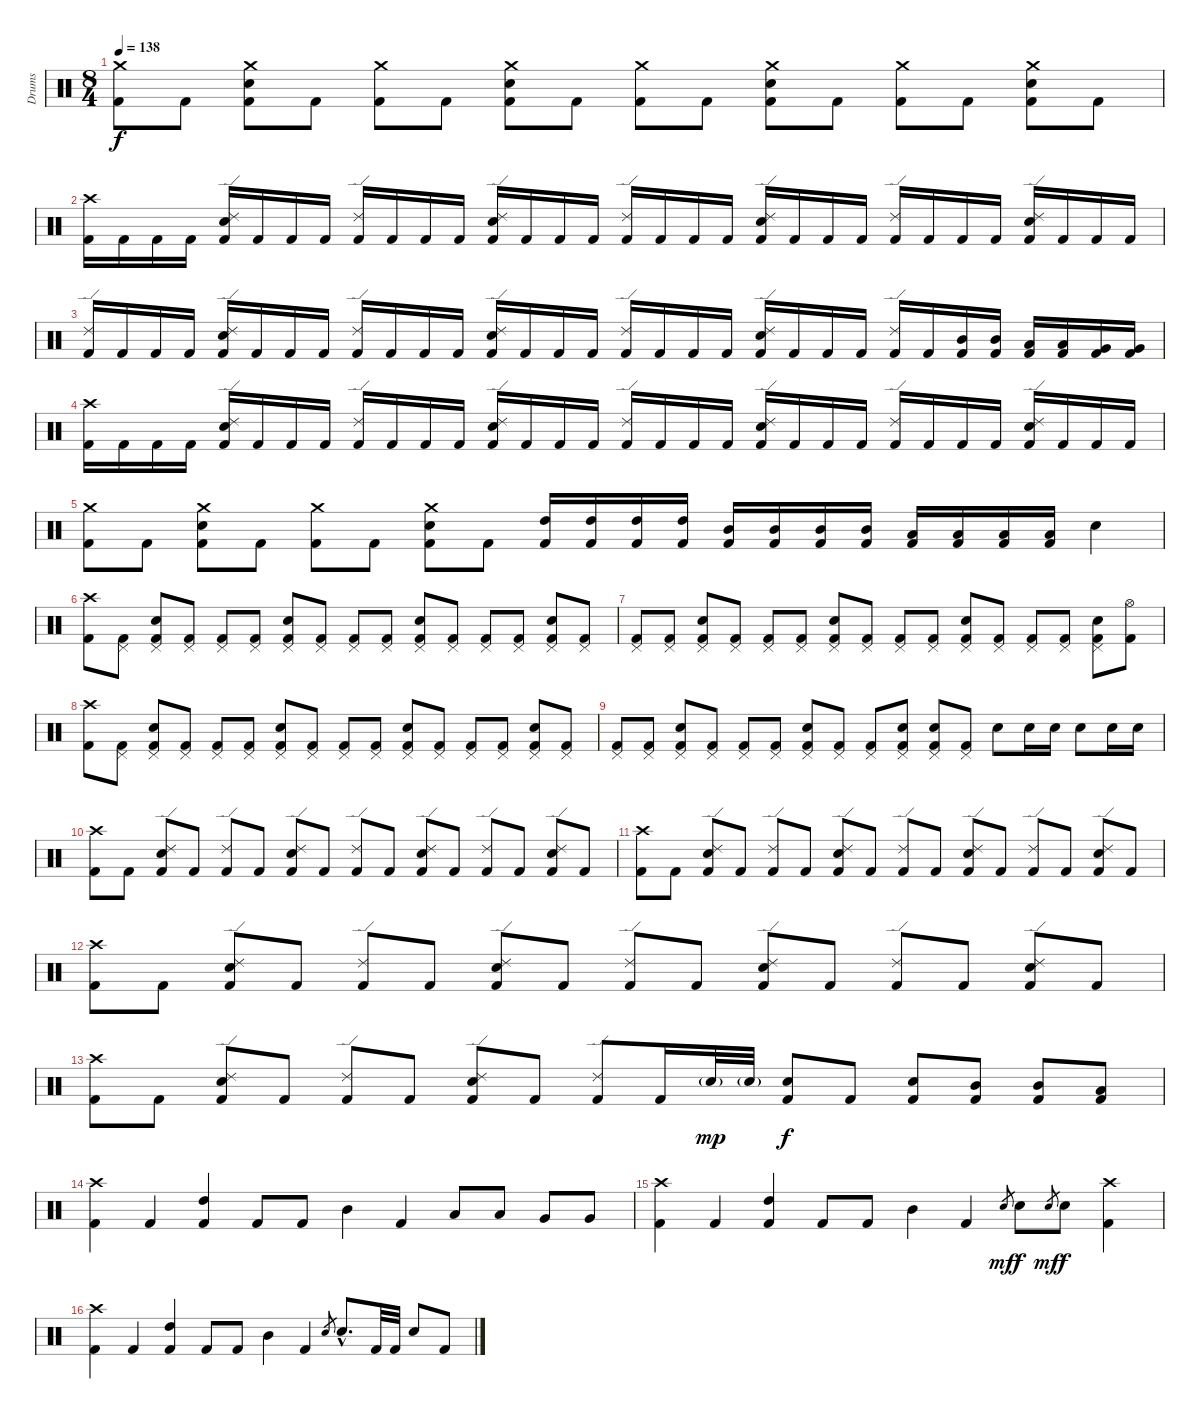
\track ("Drums" "Drums") {instrument percussion}
\staff {score}
\articulation defaults
\ts (8 4)
\tempo 138
\clef neutral
\ks c
("Crash medium (hit)" "Kick (hit) 2").8{dy f} "Kick (hit) 2".8 ("Crash medium (hit)" "Snare (hit) 2" "Kick (hit) 2").8 "Kick (hit) 2".8 ("Crash medium (hit)" "Kick (hit) 2").8 "Kick (hit) 2".8 ("Crash medium (hit)" "Snare (hit) 2" "Kick (hit) 2").8 "Kick (hit) 2".8 ("Crash medium (hit)" "Kick (hit) 2").8 "Kick (hit) 2".8 ("Crash medium (hit)" "Snare (hit) 2" "Kick (hit) 2").8 "Kick (hit) 2".8 ("Crash medium (hit)" "Kick (hit) 2").8 "Kick (hit) 2".8 ("Crash medium (hit)" "Snare (hit) 2" "Kick (hit) 2").8 "Kick (hit) 2".8 |
("Crash high (hit)" "Kick (hit) 2").16 "Kick (hit) 2".16 "Kick (hit) 2".16 "Kick (hit) 2".16 ("Ride (edge) 2" "Snare (hit) 2" "Kick (hit) 2").16 "Kick (hit) 2".16 "Kick (hit) 2".16 "Kick (hit) 2".16 ("Ride (edge) 2" "Kick (hit) 2").16 "Kick (hit) 2".16 "Kick (hit) 2".16 "Kick (hit) 2".16 ("Ride (edge) 2" "Snare (hit) 2" "Kick (hit) 2").16 "Kick (hit) 2".16 "Kick (hit) 2".16 "Kick (hit) 2".16 ("Ride (edge) 2" "Kick (hit) 2").16 "Kick (hit) 2".16 "Kick (hit) 2".16 "Kick (hit) 2".16 ("Ride (edge) 2" "Snare (hit) 2" "Kick (hit) 2").16 "Kick (hit) 2".16 "Kick (hit) 2".16 "Kick (hit) 2".16 ("Ride (edge) 2" "Kick (hit) 2").16 "Kick (hit) 2".16 "Kick (hit) 2".16 "Kick (hit) 2".16 ("Ride (edge) 2" "Snare (hit) 2" "Kick (hit) 2").16 "Kick (hit) 2".16 "Kick (hit) 2".16 "Kick (hit) 2".16 |
("Ride (edge) 2" "Kick (hit) 2").16 "Kick (hit) 2".16 "Kick (hit) 2".16 "Kick (hit) 2".16 ("Ride (edge) 2" "Snare (hit) 2" "Kick (hit) 2").16 "Kick (hit) 2".16 "Kick (hit) 2".16 "Kick (hit) 2".16 ("Ride (edge) 2" "Kick (hit) 2").16 "Kick (hit) 2".16 "Kick (hit) 2".16 "Kick (hit) 2".16 ("Ride (edge) 2" "Snare (hit) 2" "Kick (hit) 2").16 "Kick (hit) 2".16 "Kick (hit) 2".16 "Kick (hit) 2".16 ("Ride (edge) 2" "Kick (hit) 2").16 "Kick (hit) 2".16 "Kick (hit) 2".16 "Kick (hit) 2".16 ("Ride (edge) 2" "Snare (hit) 2" "Kick (hit) 2").16 "Kick (hit) 2".16 "Kick (hit) 2".16 "Kick (hit) 2".16 ("Ride (edge) 2" "Kick (hit) 2").16 "Kick (hit) 2".16 ("Mid Tom (hit)" "Kick (hit) 2").16 ("Mid Tom (hit)" "Kick (hit) 2").16 ("Low Tom (hit)" "Kick (hit) 2").16 ("Low Tom (hit)" "Kick (hit) 2").16 ("Very Low Tom (hit)" "Kick (hit) 2").16 ("Very Low Tom (hit)" "Kick (hit) 2").16 |
("Crash high (hit)" "Kick (hit) 2").16 "Kick (hit) 2".16 "Kick (hit) 2".16 "Kick (hit) 2".16 ("Ride (edge) 2" "Snare (hit) 2" "Kick (hit) 2").16 "Kick (hit) 2".16 "Kick (hit) 2".16 "Kick (hit) 2".16 ("Ride (edge) 2" "Kick (hit) 2").16 "Kick (hit) 2".16 "Kick (hit) 2".16 "Kick (hit) 2".16 ("Ride (edge) 2" "Snare (hit) 2" "Kick (hit) 2").16 "Kick (hit) 2".16 "Kick (hit) 2".16 "Kick (hit) 2".16 ("Ride (edge) 2" "Kick (hit) 2").16 "Kick (hit) 2".16 "Kick (hit) 2".16 "Kick (hit) 2".16 ("Ride (edge) 2" "Snare (hit) 2" "Kick (hit) 2").16 "Kick (hit) 2".16 "Kick (hit) 2".16 "Kick (hit) 2".16 ("Ride (edge) 2" "Kick (hit) 2").16 "Kick (hit) 2".16 "Kick (hit) 2".16 "Kick (hit) 2".16 ("Ride (edge) 2" "Snare (hit) 2" "Kick (hit) 2").16 "Kick (hit) 2".16 "Kick (hit) 2".16 "Kick (hit) 2".16 |
("Crash medium (hit)" "Kick (hit) 2").8 "Kick (hit) 2".8 ("Crash medium (hit)" "Snare (hit) 2" "Kick (hit) 2").8 "Kick (hit) 2".8 ("Crash medium (hit)" "Kick (hit) 2").8 "Kick (hit) 2".8 ("Crash medium (hit)" "Snare (hit) 2" "Kick (hit) 2").8 "Kick (hit) 2".8 ("High Tom (hit)" "Kick (hit) 2").16 ("High Tom (hit)" "Kick (hit) 2").16 ("High Tom (hit)" "Kick (hit) 2").16 ("High Tom (hit)" "Kick (hit) 2").16 ("Mid Tom (hit)" "Kick (hit) 2").16 ("Mid Tom (hit)" "Kick (hit) 2").16 ("Mid Tom (hit)" "Kick (hit) 2").16 ("Mid Tom (hit)" "Kick (hit) 2").16 ("Low Tom (hit)" "Kick (hit) 2").16 ("Low Tom (hit)" "Kick (hit) 2").16 ("Low Tom (hit)" "Kick (hit) 2").16 ("Low Tom (hit)" "Kick (hit) 2").16 "Snare (hit) 2".4 |
("Crash high (hit)" "Kick (hit) 2").8 ("Pedal Hi-Hat (hit)" "Kick (hit) 2").8 ("Pedal Hi-Hat (hit)" "Snare (hit) 2" "Kick (hit) 2").8 ("Pedal Hi-Hat (hit)" "Kick (hit) 2").8 ("Pedal Hi-Hat (hit)" "Kick (hit) 2").8 ("Pedal Hi-Hat (hit)" "Kick (hit) 2").8 ("Pedal Hi-Hat (hit)" "Snare (hit) 2" "Kick (hit) 2").8 ("Pedal Hi-Hat (hit)" "Kick (hit) 2").8 ("Pedal Hi-Hat (hit)" "Kick (hit) 2").8 ("Pedal Hi-Hat (hit)" "Kick (hit) 2").8 ("Pedal Hi-Hat (hit)" "Snare (hit) 2" "Kick (hit) 2").8 ("Pedal Hi-Hat (hit)" "Kick (hit) 2").8 ("Pedal Hi-Hat (hit)" "Kick (hit) 2").8 ("Pedal Hi-Hat (hit)" "Kick (hit) 2").8 ("Pedal Hi-Hat (hit)" "Snare (hit) 2" "Kick (hit) 2").8 ("Pedal Hi-Hat (hit)" "Kick (hit) 2").8 |
("Pedal Hi-Hat (hit)" "Kick (hit) 2").8 ("Pedal Hi-Hat (hit)" "Kick (hit) 2").8 ("Pedal Hi-Hat (hit)" "Snare (hit) 2" "Kick (hit) 2").8 ("Pedal Hi-Hat (hit)" "Kick (hit) 2").8 ("Pedal Hi-Hat (hit)" "Kick (hit) 2").8 ("Pedal Hi-Hat (hit)" "Kick (hit) 2").8 ("Pedal Hi-Hat (hit)" "Snare (hit) 2" "Kick (hit) 2").8 ("Pedal Hi-Hat (hit)" "Kick (hit) 2").8 ("Pedal Hi-Hat (hit)" "Kick (hit) 2").8 ("Pedal Hi-Hat (hit)" "Kick (hit) 2").8 ("Pedal Hi-Hat (hit)" "Snare (hit) 2" "Kick (hit) 2").8 ("Pedal Hi-Hat (hit)" "Kick (hit) 2").8 ("Pedal Hi-Hat (hit)" "Kick (hit) 2").8 ("Pedal Hi-Hat (hit)" "Kick (hit) 2").8 ("Pedal Hi-Hat (hit)" "Snare (hit) 2" "Kick (hit) 2").8 ("Hi-Hat (open)" "Kick (hit) 2").8 |
("Crash high (hit)" "Kick (hit) 2").8 ("Pedal Hi-Hat (hit)" "Kick (hit) 2").8 ("Pedal Hi-Hat (hit)" "Snare (hit) 2" "Kick (hit) 2").8 ("Pedal Hi-Hat (hit)" "Kick (hit) 2").8 ("Pedal Hi-Hat (hit)" "Kick (hit) 2").8 ("Pedal Hi-Hat (hit)" "Kick (hit) 2").8 ("Pedal Hi-Hat (hit)" "Snare (hit) 2" "Kick (hit) 2").8 ("Pedal Hi-Hat (hit)" "Kick (hit) 2").8 ("Pedal Hi-Hat (hit)" "Kick (hit) 2").8 ("Pedal Hi-Hat (hit)" "Kick (hit) 2").8 ("Pedal Hi-Hat (hit)" "Snare (hit) 2" "Kick (hit) 2").8 ("Pedal Hi-Hat (hit)" "Kick (hit) 2").8 ("Pedal Hi-Hat (hit)" "Kick (hit) 2").8 ("Pedal Hi-Hat (hit)" "Kick (hit) 2").8 ("Pedal Hi-Hat (hit)" "Snare (hit) 2" "Kick (hit) 2").8 ("Pedal Hi-Hat (hit)" "Kick (hit) 2").8 |
("Pedal Hi-Hat (hit)" "Kick (hit) 2").8 ("Pedal Hi-Hat (hit)" "Kick (hit) 2").8 ("Pedal Hi-Hat (hit)" "Snare (hit) 2" "Kick (hit) 2").8 ("Pedal Hi-Hat (hit)" "Kick (hit) 2").8 ("Pedal Hi-Hat (hit)" "Kick (hit) 2").8 ("Pedal Hi-Hat (hit)" "Kick (hit) 2").8 ("Pedal Hi-Hat (hit)" "Snare (hit) 2" "Kick (hit) 2").8 ("Pedal Hi-Hat (hit)" "Kick (hit) 2").8 ("Pedal Hi-Hat (hit)" "Kick (hit) 2").8 ("Pedal Hi-Hat (hit)" "Snare (hit) 2" "Kick (hit) 2").8 ("Pedal Hi-Hat (hit)" "Snare (hit) 2" "Kick (hit) 2").8 ("Pedal Hi-Hat (hit)" "Kick (hit) 2").8 "Snare (hit) 2".8 "Snare (hit) 2".16 "Snare (hit) 2".16 "Snare (hit) 2".8 "Snare (hit) 2".16 "Snare (hit) 2".16 |
("Crash high (hit)" "Kick (hit) 2").8 "Kick (hit) 2".8 ("Ride (edge) 2" "Snare (hit) 2" "Kick (hit) 2").8 "Kick (hit) 2".8 ("Ride (edge) 2" "Kick (hit) 2").8 "Kick (hit) 2".8 ("Ride (edge) 2" "Snare (hit) 2" "Kick (hit) 2").8 "Kick (hit) 2".8 ("Ride (edge) 2" "Kick (hit) 2").8 "Kick (hit) 2".8 ("Ride (edge) 2" "Snare (hit) 2" "Kick (hit) 2").8 "Kick (hit) 2".8 ("Ride (edge) 2" "Kick (hit) 2").8 "Kick (hit) 2".8 ("Ride (edge) 2" "Snare (hit) 2" "Kick (hit) 2").8 "Kick (hit) 2".8 |
("Crash high (hit)" "Kick (hit) 2").8 "Kick (hit) 2".8 ("Ride (edge) 2" "Snare (hit) 2" "Kick (hit) 2").8 "Kick (hit) 2".8 ("Ride (edge) 2" "Kick (hit) 2").8 "Kick (hit) 2".8 ("Ride (edge) 2" "Snare (hit) 2" "Kick (hit) 2").8 "Kick (hit) 2".8 ("Ride (edge) 2" "Kick (hit) 2").8 "Kick (hit) 2".8 ("Ride (edge) 2" "Snare (hit) 2" "Kick (hit) 2").8 "Kick (hit) 2".8 ("Ride (edge) 2" "Kick (hit) 2").8 "Kick (hit) 2".8 ("Ride (edge) 2" "Snare (hit) 2" "Kick (hit) 2").8 "Kick (hit) 2".8 |
("Crash high (hit)" "Kick (hit) 2").8 "Kick (hit) 2".8 ("Ride (edge) 2" "Snare (hit) 2" "Kick (hit) 2").8 "Kick (hit) 2".8 ("Ride (edge) 2" "Kick (hit) 2").8 "Kick (hit) 2".8 ("Ride (edge) 2" "Snare (hit) 2" "Kick (hit) 2").8 "Kick (hit) 2".8 ("Ride (edge) 2" "Kick (hit) 2").8 "Kick (hit) 2".8 ("Ride (edge) 2" "Snare (hit) 2" "Kick (hit) 2").8 "Kick (hit) 2".8 ("Ride (edge) 2" "Kick (hit) 2").8 "Kick (hit) 2".8 ("Ride (edge) 2" "Snare (hit) 2" "Kick (hit) 2").8 "Kick (hit) 2".8 |
("Crash high (hit)" "Kick (hit) 2").8 "Kick (hit) 2".8 ("Ride (edge) 2" "Snare (hit) 2" "Kick (hit) 2").8 "Kick (hit) 2".8 ("Ride (edge) 2" "Kick (hit) 2").8 "Kick (hit) 2".8 ("Ride (edge) 2" "Snare (hit) 2" "Kick (hit) 2").8 "Kick (hit) 2".8 ("Ride (edge) 2" "Kick (hit) 2").8 "Kick (hit) 2".16 "Snare (hit) 2"{g}.32{dy mp} "Snare (hit) 2"{g}.32 ("Snare (hit) 2" "Kick (hit) 2").8{dy f} "Kick (hit) 2".8 ("Snare (hit) 2" "Kick (hit) 2").8 ("Mid Tom (hit)" "Kick (hit) 2").8 ("Mid Tom (hit)" "Kick (hit) 2").8 ("Low Tom (hit)" "Kick (hit) 2").8 |
("Crash high (hit)" "Kick (hit) 2").4 "Kick (hit) 2".4 ("High Tom (hit)" "Kick (hit) 2").4 "Kick (hit) 2".8 "Kick (hit) 2".8 "Mid Tom (hit)".4 "Kick (hit) 2".4 "Low Tom (hit)".8 "Low Tom (hit)".8 "Very Low Tom (hit)".8 "Very Low Tom (hit)".8 |
("Crash high (hit)" "Kick (hit) 2").4 "Kick (hit) 2".4 ("High Tom (hit)" "Kick (hit) 2").4 "Kick (hit) 2".8 "Kick (hit) 2".8 "Mid Tom (hit)".4 "Kick (hit) 2".4 "Snare (hit) 2".8{gr dy mf} "Snare (hit) 2".8{dy f} "Snare (hit) 2".8{gr dy mf} "Snare (hit) 2".8{dy f} ("Crash high (hit)" "Kick (hit) 2").4 |
("Crash high (hit)" "Kick (hit) 2").4 "Kick (hit) 2".4 ("High Tom (hit)" "Kick (hit) 2").4 "Kick (hit) 2".8 "Kick (hit) 2".8 "Mid Tom (hit)".4 "Kick (hit) 2".4 "Snare (hit) 2".8{gr} "Snare (hit) 2"{hac}.8{d} "Kick (hit) 2".32 "Kick (hit) 2".32 "Snare (hit) 2".8 "Kick (hit) 2".8
